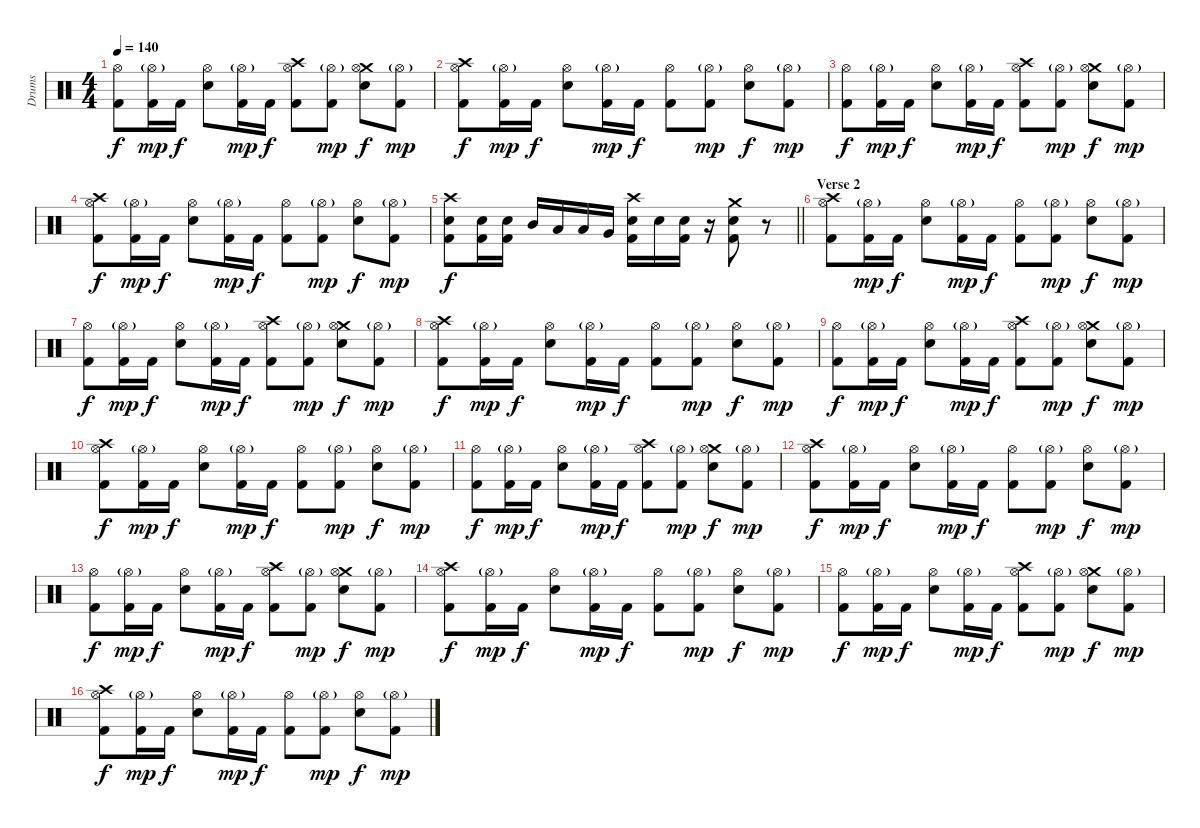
\track ("Drums" "Drums") {instrument percussion}
\staff {score}
\articulation defaults
\ts (4 4)
\tempo 140
\clef neutral
\ks c
("Hi-Hat (open)" "Kick (hit) 2").8{dy f} ("Hi-Hat (open)"{g} "Kick (hit) 2").16{dy mp} "Kick (hit) 2".16{dy f} ("Hi-Hat (open)" "Snare (hit) 2").8 ("Hi-Hat (open)"{g} "Kick (hit) 2").16{dy mp} "Kick (hit) 2".16{dy f} ("Crash high (hit)" "Hi-Hat (open)" "Kick (hit) 2").8 ("Hi-Hat (open)"{g} "Kick (hit) 2").8{dy mp} ("Crash medium (hit)" "Hi-Hat (open)" "Snare (hit) 2").8{dy f} ("Hi-Hat (open)"{g} "Kick (hit) 2").8{dy mp} |
("Crash high (hit)" "Hi-Hat (open)" "Kick (hit) 2").8{dy f} ("Hi-Hat (open)"{g} "Kick (hit) 2").16{dy mp} "Kick (hit) 2".16{dy f} ("Hi-Hat (open)" "Snare (hit) 2").8 ("Hi-Hat (open)"{g} "Kick (hit) 2").16{dy mp} "Kick (hit) 2".16{dy f} ("Hi-Hat (open)" "Kick (hit) 2").8 ("Hi-Hat (open)"{g} "Kick (hit) 2").8{dy mp} ("Hi-Hat (open)" "Snare (hit) 2").8{dy f} ("Hi-Hat (open)"{g} "Kick (hit) 2").8{dy mp} |
("Hi-Hat (open)" "Kick (hit) 2").8{dy f} ("Hi-Hat (open)"{g} "Kick (hit) 2").16{dy mp} "Kick (hit) 2".16{dy f} ("Hi-Hat (open)" "Snare (hit) 2").8 ("Hi-Hat (open)"{g} "Kick (hit) 2").16{dy mp} "Kick (hit) 2".16{dy f} ("Crash high (hit)" "Hi-Hat (open)" "Kick (hit) 2").8 ("Hi-Hat (open)"{g} "Kick (hit) 2").8{dy mp} ("Crash medium (hit)" "Hi-Hat (open)" "Snare (hit) 2").8{dy f} ("Hi-Hat (open)"{g} "Kick (hit) 2").8{dy mp} |
("Crash high (hit)" "Hi-Hat (open)" "Kick (hit) 2").8{dy f} ("Hi-Hat (open)"{g} "Kick (hit) 2").16{dy mp} "Kick (hit) 2".16{dy f} ("Hi-Hat (open)" "Snare (hit) 2").8 ("Hi-Hat (open)"{g} "Kick (hit) 2").16{dy mp} "Kick (hit) 2".16{dy f} ("Hi-Hat (open)" "Kick (hit) 2").8 ("Hi-Hat (open)"{g} "Kick (hit) 2").8{dy mp} ("Hi-Hat (open)" "Snare (hit) 2").8{dy f} ("Hi-Hat (open)"{g} "Kick (hit) 2").8{dy mp} |
\barLineRight lightlight
("Crash high (hit)" "Snare (hit) 2" "Kick (hit) 2").8{dy f} ("Snare (hit) 2" "Kick (hit) 2").16 ("Snare (hit) 2" "Kick (hit) 2").16 "Mid Tom (hit)".16 "Low Tom (hit)".16 "Low Tom (hit)".16 "Very Low Tom (hit)".16 ("Crash high (hit)" "Snare (hit) 2" "Kick (hit) 2").16 "Snare (hit) 2".16 ("Snare (hit) 2" "Kick (hit) 2").16 r.16 ("Crash medium (hit)" "Snare (hit) 2" "Kick (hit) 2").8 r.8 |
\section ("" "Verse 2")
("Crash high (hit)" "Hi-Hat (open)" "Kick (hit) 2").8 ("Hi-Hat (open)"{g} "Kick (hit) 2").16{dy mp} "Kick (hit) 2".16{dy f} ("Hi-Hat (open)" "Snare (hit) 2").8 ("Hi-Hat (open)"{g} "Kick (hit) 2").16{dy mp} "Kick (hit) 2".16{dy f} ("Hi-Hat (open)" "Kick (hit) 2").8 ("Hi-Hat (open)"{g} "Kick (hit) 2").8{dy mp} ("Hi-Hat (open)" "Snare (hit) 2").8{dy f} ("Hi-Hat (open)"{g} "Kick (hit) 2").8{dy mp} |
("Hi-Hat (open)" "Kick (hit) 2").8{dy f} ("Hi-Hat (open)"{g} "Kick (hit) 2").16{dy mp} "Kick (hit) 2".16{dy f} ("Hi-Hat (open)" "Snare (hit) 2").8 ("Hi-Hat (open)"{g} "Kick (hit) 2").16{dy mp} "Kick (hit) 2".16{dy f} ("Crash high (hit)" "Hi-Hat (open)" "Kick (hit) 2").8 ("Hi-Hat (open)"{g} "Kick (hit) 2").8{dy mp} ("Crash medium (hit)" "Hi-Hat (open)" "Snare (hit) 2").8{dy f} ("Hi-Hat (open)"{g} "Kick (hit) 2").8{dy mp} |
("Crash high (hit)" "Hi-Hat (open)" "Kick (hit) 2").8{dy f} ("Hi-Hat (open)"{g} "Kick (hit) 2").16{dy mp} "Kick (hit) 2".16{dy f} ("Hi-Hat (open)" "Snare (hit) 2").8 ("Hi-Hat (open)"{g} "Kick (hit) 2").16{dy mp} "Kick (hit) 2".16{dy f} ("Hi-Hat (open)" "Kick (hit) 2").8 ("Hi-Hat (open)"{g} "Kick (hit) 2").8{dy mp} ("Hi-Hat (open)" "Snare (hit) 2").8{dy f} ("Hi-Hat (open)"{g} "Kick (hit) 2").8{dy mp} |
("Hi-Hat (open)" "Kick (hit) 2").8{dy f} ("Hi-Hat (open)"{g} "Kick (hit) 2").16{dy mp} "Kick (hit) 2".16{dy f} ("Hi-Hat (open)" "Snare (hit) 2").8 ("Hi-Hat (open)"{g} "Kick (hit) 2").16{dy mp} "Kick (hit) 2".16{dy f} ("Crash high (hit)" "Hi-Hat (open)" "Kick (hit) 2").8 ("Hi-Hat (open)"{g} "Kick (hit) 2").8{dy mp} ("Crash medium (hit)" "Hi-Hat (open)" "Snare (hit) 2").8{dy f} ("Hi-Hat (open)"{g} "Kick (hit) 2").8{dy mp} |
("Crash high (hit)" "Hi-Hat (open)" "Kick (hit) 2").8{dy f} ("Hi-Hat (open)"{g} "Kick (hit) 2").16{dy mp} "Kick (hit) 2".16{dy f} ("Hi-Hat (open)" "Snare (hit) 2").8 ("Hi-Hat (open)"{g} "Kick (hit) 2").16{dy mp} "Kick (hit) 2".16{dy f} ("Hi-Hat (open)" "Kick (hit) 2").8 ("Hi-Hat (open)"{g} "Kick (hit) 2").8{dy mp} ("Hi-Hat (open)" "Snare (hit) 2").8{dy f} ("Hi-Hat (open)"{g} "Kick (hit) 2").8{dy mp} |
("Hi-Hat (open)" "Kick (hit) 2").8{dy f} ("Hi-Hat (open)"{g} "Kick (hit) 2").16{dy mp} "Kick (hit) 2".16{dy f} ("Hi-Hat (open)" "Snare (hit) 2").8 ("Hi-Hat (open)"{g} "Kick (hit) 2").16{dy mp} "Kick (hit) 2".16{dy f} ("Crash high (hit)" "Hi-Hat (open)" "Kick (hit) 2").8 ("Hi-Hat (open)"{g} "Kick (hit) 2").8{dy mp} ("Crash medium (hit)" "Hi-Hat (open)" "Snare (hit) 2").8{dy f} ("Hi-Hat (open)"{g} "Kick (hit) 2").8{dy mp} |
("Crash high (hit)" "Hi-Hat (open)" "Kick (hit) 2").8{dy f} ("Hi-Hat (open)"{g} "Kick (hit) 2").16{dy mp} "Kick (hit) 2".16{dy f} ("Hi-Hat (open)" "Snare (hit) 2").8 ("Hi-Hat (open)"{g} "Kick (hit) 2").16{dy mp} "Kick (hit) 2".16{dy f} ("Hi-Hat (open)" "Kick (hit) 2").8 ("Hi-Hat (open)"{g} "Kick (hit) 2").8{dy mp} ("Hi-Hat (open)" "Snare (hit) 2").8{dy f} ("Hi-Hat (open)"{g} "Kick (hit) 2").8{dy mp} |
("Hi-Hat (open)" "Kick (hit) 2").8{dy f} ("Hi-Hat (open)"{g} "Kick (hit) 2").16{dy mp} "Kick (hit) 2".16{dy f} ("Hi-Hat (open)" "Snare (hit) 2").8 ("Hi-Hat (open)"{g} "Kick (hit) 2").16{dy mp} "Kick (hit) 2".16{dy f} ("Crash high (hit)" "Hi-Hat (open)" "Kick (hit) 2").8 ("Hi-Hat (open)"{g} "Kick (hit) 2").8{dy mp} ("Crash medium (hit)" "Hi-Hat (open)" "Snare (hit) 2").8{dy f} ("Hi-Hat (open)"{g} "Kick (hit) 2").8{dy mp} |
("Crash high (hit)" "Hi-Hat (open)" "Kick (hit) 2").8{dy f} ("Hi-Hat (open)"{g} "Kick (hit) 2").16{dy mp} "Kick (hit) 2".16{dy f} ("Hi-Hat (open)" "Snare (hit) 2").8 ("Hi-Hat (open)"{g} "Kick (hit) 2").16{dy mp} "Kick (hit) 2".16{dy f} ("Hi-Hat (open)" "Kick (hit) 2").8 ("Hi-Hat (open)"{g} "Kick (hit) 2").8{dy mp} ("Hi-Hat (open)" "Snare (hit) 2").8{dy f} ("Hi-Hat (open)"{g} "Kick (hit) 2").8{dy mp} |
("Hi-Hat (open)" "Kick (hit) 2").8{dy f} ("Hi-Hat (open)"{g} "Kick (hit) 2").16{dy mp} "Kick (hit) 2".16{dy f} ("Hi-Hat (open)" "Snare (hit) 2").8 ("Hi-Hat (open)"{g} "Kick (hit) 2").16{dy mp} "Kick (hit) 2".16{dy f} ("Crash high (hit)" "Hi-Hat (open)" "Kick (hit) 2").8 ("Hi-Hat (open)"{g} "Kick (hit) 2").8{dy mp} ("Crash medium (hit)" "Hi-Hat (open)" "Snare (hit) 2").8{dy f} ("Hi-Hat (open)"{g} "Kick (hit) 2").8{dy mp} |
("Crash high (hit)" "Hi-Hat (open)" "Kick (hit) 2").8{dy f} ("Hi-Hat (open)"{g} "Kick (hit) 2").16{dy mp} "Kick (hit) 2".16{dy f} ("Hi-Hat (open)" "Snare (hit) 2").8 ("Hi-Hat (open)"{g} "Kick (hit) 2").16{dy mp} "Kick (hit) 2".16{dy f} ("Hi-Hat (open)" "Kick (hit) 2").8 ("Hi-Hat (open)"{g} "Kick (hit) 2").8{dy mp} ("Hi-Hat (open)" "Snare (hit) 2").8{dy f} ("Hi-Hat (open)"{g} "Kick (hit) 2").8{dy mp}
